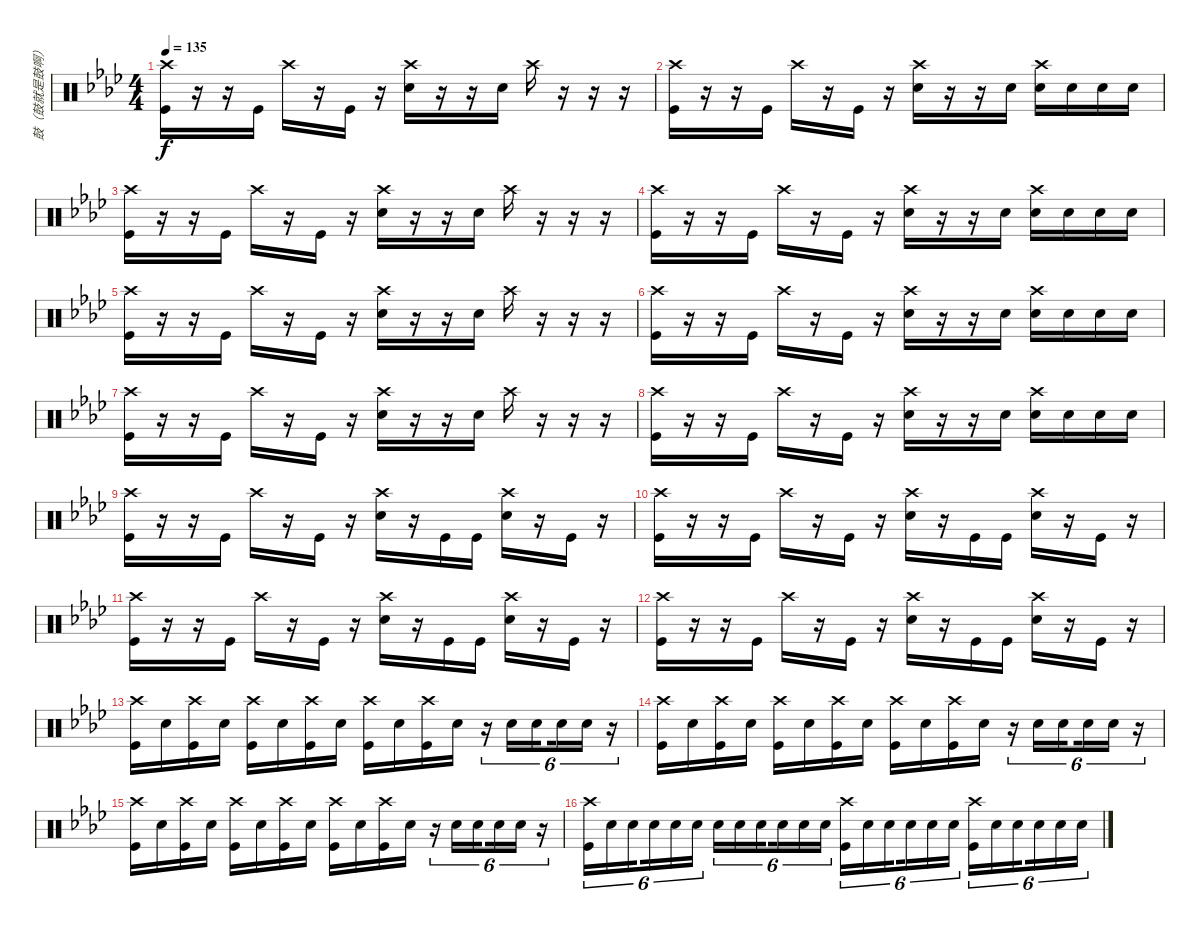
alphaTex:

\track ("鼓（鼓就是鼓啊）" "鼓（鼓就是鼓啊）") {instrument percussion}
\staff {score}
\articulation defaults
\ts (4 4)
\tempo 135
\clef neutral
\ks ab
("Crash high (hit)" "Kick (hit)").16{dy f} r.16 r.16 "Kick (hit)".16 "Crash high (hit)".16 r.16 "Kick (hit)".16 r.16 ("Crash high (hit)" "Snare (hit) 2").16 r.16 r.16 "Snare (hit) 2".16 "Crash high (hit)".16 r.16 r.16 r.16 |
("Crash high (hit)" "Kick (hit)").16 r.16 r.16 "Kick (hit)".16 "Crash high (hit)".16 r.16 "Kick (hit)".16 r.16 ("Crash high (hit)" "Snare (hit) 2").16 r.16 r.16 "Snare (hit) 2".16 ("Crash high (hit)" "Snare (hit) 2").16 "Snare (hit) 2".16 "Snare (hit) 2".16 "Snare (hit) 2".16 |
("Crash high (hit)" "Kick (hit)").16 r.16 r.16 "Kick (hit)".16 "Crash high (hit)".16 r.16 "Kick (hit)".16 r.16 ("Crash high (hit)" "Snare (hit) 2").16 r.16 r.16 "Snare (hit) 2".16 "Crash high (hit)".16 r.16 r.16 r.16 |
("Crash high (hit)" "Kick (hit)").16 r.16 r.16 "Kick (hit)".16 "Crash high (hit)".16 r.16 "Kick (hit)".16 r.16 ("Crash high (hit)" "Snare (hit) 2").16 r.16 r.16 "Snare (hit) 2".16 ("Crash high (hit)" "Snare (hit) 2").16 "Snare (hit) 2".16 "Snare (hit) 2".16 "Snare (hit) 2".16 |
("Crash high (hit)" "Kick (hit)").16 r.16 r.16 "Kick (hit)".16 "Crash high (hit)".16 r.16 "Kick (hit)".16 r.16 ("Crash high (hit)" "Snare (hit) 2").16 r.16 r.16 "Snare (hit) 2".16 "Crash high (hit)".16 r.16 r.16 r.16 |
("Crash high (hit)" "Kick (hit)").16 r.16 r.16 "Kick (hit)".16 "Crash high (hit)".16 r.16 "Kick (hit)".16 r.16 ("Crash high (hit)" "Snare (hit) 2").16 r.16 r.16 "Snare (hit) 2".16 ("Crash high (hit)" "Snare (hit) 2").16 "Snare (hit) 2".16 "Snare (hit) 2".16 "Snare (hit) 2".16 |
("Crash high (hit)" "Kick (hit)").16 r.16 r.16 "Kick (hit)".16 "Crash high (hit)".16 r.16 "Kick (hit)".16 r.16 ("Crash high (hit)" "Snare (hit) 2").16 r.16 r.16 "Snare (hit) 2".16 "Crash high (hit)".16 r.16 r.16 r.16 |
("Crash high (hit)" "Kick (hit)").16 r.16 r.16 "Kick (hit)".16 "Crash high (hit)".16 r.16 "Kick (hit)".16 r.16 ("Crash high (hit)" "Snare (hit) 2").16 r.16 r.16 "Snare (hit) 2".16 ("Crash high (hit)" "Snare (hit) 2").16 "Snare (hit) 2".16 "Snare (hit) 2".16 "Snare (hit) 2".16 |
("Crash high (hit)" "Kick (hit)").16 r.16 r.16 "Kick (hit)".16 "Crash high (hit)".16 r.16 "Kick (hit)".16 r.16 ("Crash high (hit)" "Snare (hit) 2").16 r.16 "Kick (hit)".16 "Kick (hit)".16 ("Crash high (hit)" "Snare (hit) 2").16 r.16 "Kick (hit)".16 r.16 |
("Crash high (hit)" "Kick (hit)").16 r.16 r.16 "Kick (hit)".16 "Crash high (hit)".16 r.16 "Kick (hit)".16 r.16 ("Crash high (hit)" "Snare (hit) 2").16 r.16 "Kick (hit)".16 "Kick (hit)".16 ("Crash high (hit)" "Snare (hit) 2").16 r.16 "Kick (hit)".16 r.16 |
("Crash high (hit)" "Kick (hit)").16 r.16 r.16 "Kick (hit)".16 "Crash high (hit)".16 r.16 "Kick (hit)".16 r.16 ("Crash high (hit)" "Snare (hit) 2").16 r.16 "Kick (hit)".16 "Kick (hit)".16 ("Crash high (hit)" "Snare (hit) 2").16 r.16 "Kick (hit)".16 r.16 |
("Crash high (hit)" "Kick (hit)").16 r.16 r.16 "Kick (hit)".16 "Crash high (hit)".16 r.16 "Kick (hit)".16 r.16 ("Crash high (hit)" "Snare (hit) 2").16 r.16 "Kick (hit)".16 "Kick (hit)".16 ("Crash high (hit)" "Snare (hit) 2").16 r.16 "Kick (hit)".16 r.16 |
("Crash high (hit)" "Kick (hit)").16 "Snare (hit) 2".16 ("Crash high (hit)" "Kick (hit)").16 "Snare (hit) 2".16 ("Crash high (hit)" "Kick (hit)").16 "Snare (hit) 2".16 ("Crash high (hit)" "Kick (hit)").16 "Snare (hit) 2".16 ("Crash high (hit)" "Kick (hit)").16 "Snare (hit) 2".16 ("Crash high (hit)" "Kick (hit)").16 "Snare (hit) 2".16 r.16{tu (6 4)} "Snare (hit) 2".16{tu (6 4)} "Snare (hit) 2".16{tu (6 4) beam splitsecondary} "Snare (hit) 2".16{tu (6 4)} "Snare (hit) 2".16{tu (6 4)} r.16{tu (6 4)} |
("Crash high (hit)" "Kick (hit)").16 "Snare (hit) 2".16 ("Crash high (hit)" "Kick (hit)").16 "Snare (hit) 2".16 ("Crash high (hit)" "Kick (hit)").16 "Snare (hit) 2".16 ("Crash high (hit)" "Kick (hit)").16 "Snare (hit) 2".16 ("Crash high (hit)" "Kick (hit)").16 "Snare (hit) 2".16 ("Crash high (hit)" "Kick (hit)").16 "Snare (hit) 2".16 r.16{tu (6 4)} "Snare (hit) 2".16{tu (6 4)} "Snare (hit) 2".16{tu (6 4) beam splitsecondary} "Snare (hit) 2".16{tu (6 4)} "Snare (hit) 2".16{tu (6 4)} r.16{tu (6 4)} |
("Crash high (hit)" "Kick (hit)").16 "Snare (hit) 2".16 ("Crash high (hit)" "Kick (hit)").16 "Snare (hit) 2".16 ("Crash high (hit)" "Kick (hit)").16 "Snare (hit) 2".16 ("Crash high (hit)" "Kick (hit)").16 "Snare (hit) 2".16 ("Crash high (hit)" "Kick (hit)").16 "Snare (hit) 2".16 ("Crash high (hit)" "Kick (hit)").16 "Snare (hit) 2".16 r.16{tu (6 4)} "Snare (hit) 2".16{tu (6 4)} "Snare (hit) 2".16{tu (6 4) beam splitsecondary} "Snare (hit) 2".16{tu (6 4)} "Snare (hit) 2".16{tu (6 4)} r.16{tu (6 4)} |
("Crash high (hit)" "Kick (hit)").16{tu (6 4)} "Snare (hit) 2".16{tu (6 4)} "Snare (hit) 2".16{tu (6 4) beam splitsecondary} "Snare (hit) 2".16{tu (6 4)} "Snare (hit) 2".16{tu (6 4)} "Snare (hit) 2".16{tu (6 4)} "Snare (hit) 2".16{tu (6 4)} "Snare (hit) 2".16{tu (6 4)} "Snare (hit) 2".16{tu (6 4) beam splitsecondary} "Snare (hit) 2".16{tu (6 4)} "Snare (hit) 2".16{tu (6 4)} "Snare (hit) 2".16{tu (6 4)} ("Crash high (hit)" "Kick (hit)").16{tu (6 4)} "Snare (hit) 2".16{tu (6 4)} "Snare (hit) 2".16{tu (6 4) beam splitsecondary} "Snare (hit) 2".16{tu (6 4)} "Snare (hit) 2".16{tu (6 4)} "Snare (hit) 2".16{tu (6 4)} ("Crash high (hit)" "Kick (hit)").16{tu (6 4)} "Snare (hit) 2".16{tu (6 4)} "Snare (hit) 2".16{tu (6 4) beam splitsecondary} "Snare (hit) 2".16{tu (6 4)} "Snare (hit) 2".16{tu (6 4)} "Snare (hit) 2".16{tu (6 4)}
